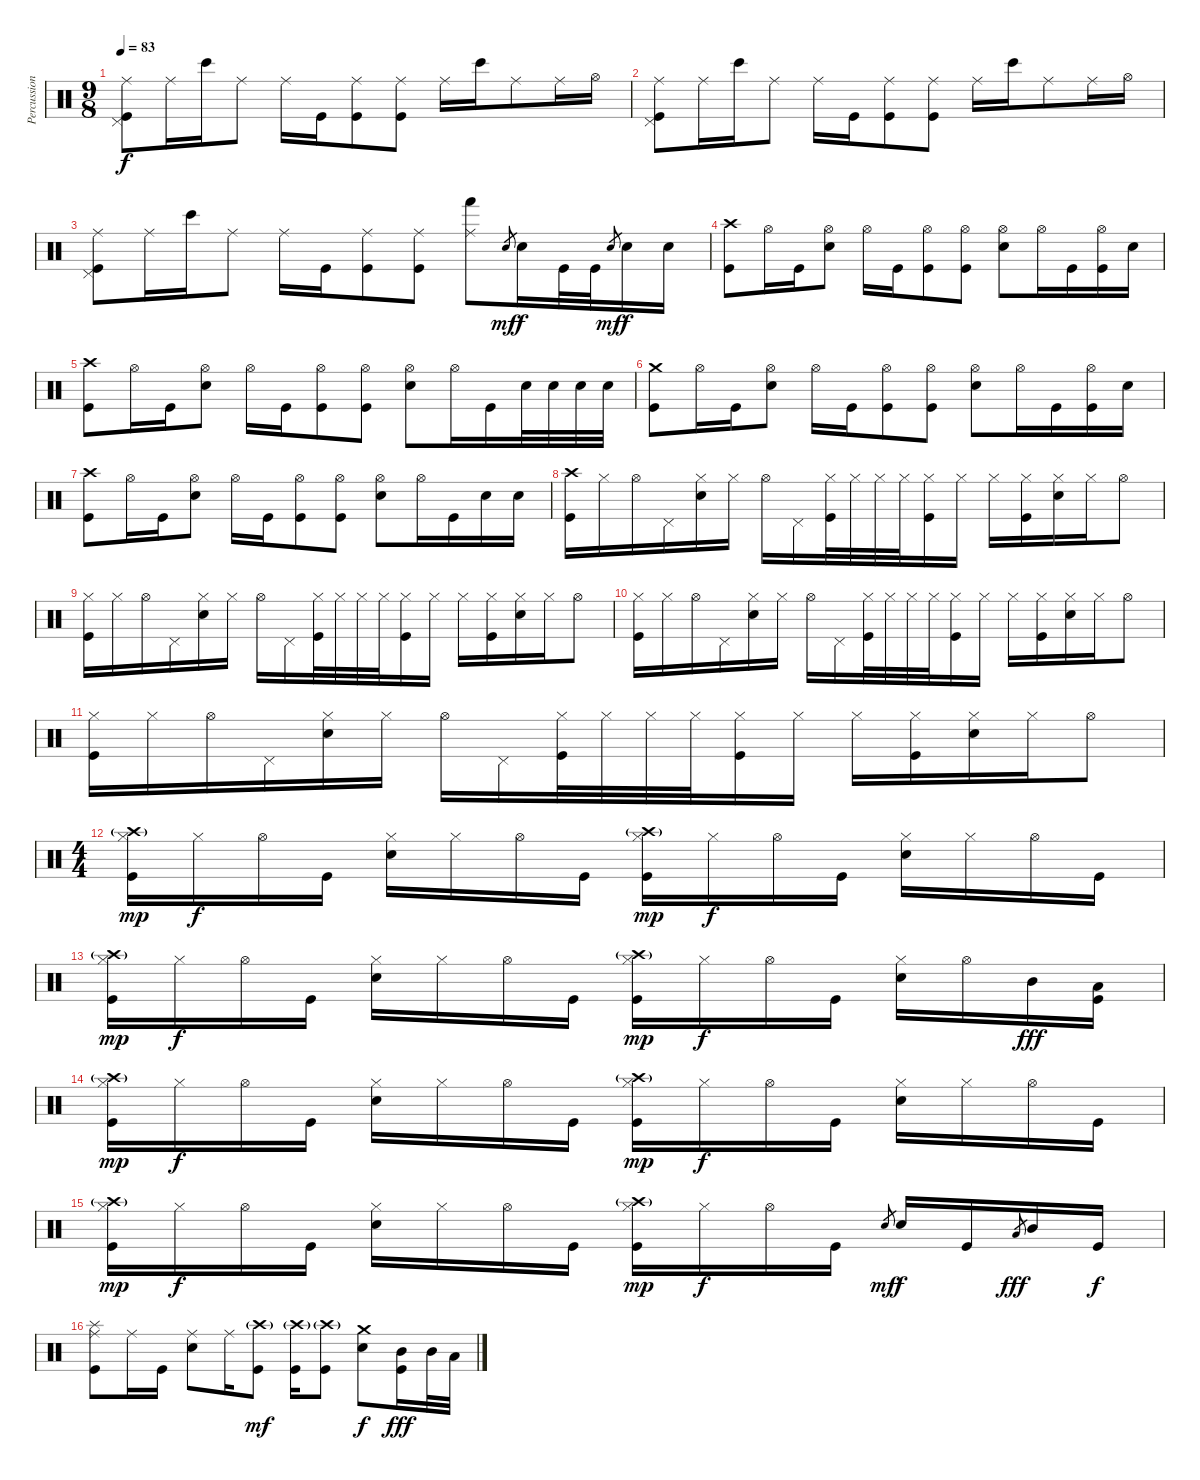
\track ("Percussions" "Percussion") {instrument percussion}
\staff {score}
\articulation defaults
\ts (9 8)
\tempo 83
\clef neutral
\ks c
("Ride (middle)" "Pedal Hi-Hat (hit)" "Kick (hit)").8{dy f} "Ride (middle)".16 "Bongo High (hit)".16 "Ride (middle)".8 "Ride (middle)".16 "Kick (hit)".16 ("Ride (middle)" "Kick (hit)").8 ("Ride (middle)" "Kick (hit)").8 "Ride (middle)".16 "Bongo High (hit)".16 "Ride (middle)".8 "Ride (middle)".16 "Hi-Hat (open)".16 |
("Ride (middle)" "Pedal Hi-Hat (hit)" "Kick (hit)").8 "Ride (middle)".16 "Bongo High (hit)".16 "Ride (middle)".8 "Ride (middle)".16 "Kick (hit)".16 ("Ride (middle)" "Kick (hit)").8 ("Ride (middle)" "Kick (hit)").8 "Ride (middle)".16 "Bongo High (hit)".16 "Ride (middle)".8 "Ride (middle)".16 "Hi-Hat (open)".16 |
("Ride (middle)" "Pedal Hi-Hat (hit)" "Kick (hit)").8 "Ride (middle)".16 "Bongo High (hit)".16 "Ride (middle)".8 "Ride (middle)".16 "Kick (hit)".16 ("Ride (middle)" "Kick (hit)").8 ("Ride (middle)" "Kick (hit)").8 ("Ride (middle)" "Hand (hit)").8 "Electric Snare (hit)".8{gr dy mf} "Electric Snare (hit)".16{dy f} "Kick (hit)".32 "Kick (hit)".32 "Electric Snare (hit)".8{gr dy mf} "Electric Snare (hit)".16{dy f} "Electric Snare (hit)".16 |
("Crash high (hit)" "Kick (hit)").8{volume 16} "Hi-Hat (open)".16 "Kick (hit)".16 ("Hi-Hat (open)" "Electric Snare (hit)").8 "Hi-Hat (open)".16 "Kick (hit)".16 ("Hi-Hat (open)" "Kick (hit)").8 ("Hi-Hat (open)" "Kick (hit)").8 ("Hi-Hat (open)" "Electric Snare (hit)").8 "Hi-Hat (open)".16 "Kick (hit)".16 ("Hi-Hat (open)" "Kick (hit)").16 "Electric Snare (hit)".16 |
("Crash high (hit)" "Kick (hit)").8 "Hi-Hat (open)".16 "Kick (hit)".16 ("Hi-Hat (open)" "Electric Snare (hit)").8 "Hi-Hat (open)".16 "Kick (hit)".16 ("Hi-Hat (open)" "Kick (hit)").8 ("Hi-Hat (open)" "Kick (hit)").8 ("Hi-Hat (open)" "Electric Snare (hit)").8 "Hi-Hat (open)".16 "Kick (hit)".16 "Electric Snare (hit)".32 "Electric Snare (hit)".32 "Electric Snare (hit)".32 "Electric Snare (hit)".32 |
("Crash medium (hit)" "Kick (hit)").8 "Hi-Hat (open)".16 "Kick (hit)".16 ("Hi-Hat (open)" "Electric Snare (hit)").8 "Hi-Hat (open)".16 "Kick (hit)".16 ("Hi-Hat (open)" "Kick (hit)").8 ("Hi-Hat (open)" "Kick (hit)").8 ("Hi-Hat (open)" "Electric Snare (hit)").8 "Hi-Hat (open)".16 "Kick (hit)".16 ("Hi-Hat (open)" "Kick (hit)").16 "Electric Snare (hit)".16 |
("Crash high (hit)" "Kick (hit)").8 "Hi-Hat (open)".16 "Kick (hit)".16 ("Hi-Hat (open)" "Electric Snare (hit)").8 "Hi-Hat (open)".16 "Kick (hit)".16 ("Hi-Hat (open)" "Kick (hit)").8 ("Hi-Hat (open)" "Kick (hit)").8 ("Hi-Hat (open)" "Electric Snare (hit)").8 "Hi-Hat (open)".16 "Kick (hit)".16 "Electric Snare (hit)".16 "Electric Snare (hit)".16 |
("Crash high (hit)" "Kick (hit)").16 "Hi-Hat (closed)".16 "Hi-Hat (open)".16 "Pedal Hi-Hat (hit)".16 ("Hi-Hat (closed)" "Electric Snare (hit)").16 "Hi-Hat (closed)".16 "Hi-Hat (open)".16 "Pedal Hi-Hat (hit)".16 ("Hi-Hat (closed)" "Kick (hit)").32 "Hi-Hat (closed)".32 "Hi-Hat (closed)".32 "Hi-Hat (closed)".32 ("Hi-Hat (closed)" "Kick (hit)").16 "Hi-Hat (closed)".16 "Hi-Hat (closed)".16 ("Hi-Hat (closed)" "Kick (hit)").16 ("Hi-Hat (closed)" "Electric Snare (hit)").16 "Hi-Hat (closed)".16 "Hi-Hat (open)".8 |
("Hi-Hat (closed)" "Kick (hit)").16 "Hi-Hat (closed)".16 "Hi-Hat (open)".16 "Pedal Hi-Hat (hit)".16 ("Hi-Hat (closed)" "Electric Snare (hit)").16 "Hi-Hat (closed)".16 "Hi-Hat (open)".16 "Pedal Hi-Hat (hit)".16 ("Hi-Hat (closed)" "Kick (hit)").32 "Hi-Hat (closed)".32 "Hi-Hat (closed)".32 "Hi-Hat (closed)".32 ("Hi-Hat (closed)" "Kick (hit)").16 "Hi-Hat (closed)".16 "Hi-Hat (closed)".16 ("Hi-Hat (closed)" "Kick (hit)").16 ("Hi-Hat (closed)" "Electric Snare (hit)").16 "Hi-Hat (closed)".16 "Hi-Hat (open)".8 |
("Hi-Hat (closed)" "Kick (hit)").16 "Hi-Hat (closed)".16 "Hi-Hat (open)".16 "Pedal Hi-Hat (hit)".16 ("Hi-Hat (closed)" "Electric Snare (hit)").16 "Hi-Hat (closed)".16 "Hi-Hat (open)".16 "Pedal Hi-Hat (hit)".16 ("Hi-Hat (closed)" "Kick (hit)").32 "Hi-Hat (closed)".32 "Hi-Hat (closed)".32 "Hi-Hat (closed)".32 ("Hi-Hat (closed)" "Kick (hit)").16 "Hi-Hat (closed)".16 "Hi-Hat (closed)".16 ("Hi-Hat (closed)" "Kick (hit)").16 ("Hi-Hat (closed)" "Electric Snare (hit)").16 "Hi-Hat (closed)".16 "Hi-Hat (open)".8 |
("Hi-Hat (closed)" "Kick (hit)").16 "Hi-Hat (closed)".16 "Hi-Hat (open)".16 "Pedal Hi-Hat (hit)".16 ("Hi-Hat (closed)" "Electric Snare (hit)").16 "Hi-Hat (closed)".16 "Hi-Hat (open)".16 "Pedal Hi-Hat (hit)".16 ("Hi-Hat (closed)" "Kick (hit)").32 "Hi-Hat (closed)".32 "Hi-Hat (closed)".32 "Hi-Hat (closed)".32 ("Hi-Hat (closed)" "Kick (hit)").16 "Hi-Hat (closed)".16 "Hi-Hat (closed)".16 ("Hi-Hat (closed)" "Kick (hit)").16 ("Hi-Hat (closed)" "Electric Snare (hit)").16 "Hi-Hat (closed)".16 "Hi-Hat (open)".8 |
\ts (4 4)
("Crash high (hit)"{g} "Hi-Hat (closed)" "Kick (hit)").16{dy mp} "Hi-Hat (closed)".16{dy f} "Hi-Hat (open)".16 "Kick (hit)".16 ("Hi-Hat (closed)" "Electric Snare (hit)").16 "Hi-Hat (closed)".16 "Hi-Hat (open)".16 "Kick (hit)".16 ("Crash high (hit)"{g} "Hi-Hat (closed)" "Kick (hit)").16{dy mp} "Hi-Hat (closed)".16{dy f} "Hi-Hat (open)".16 "Kick (hit)".16 ("Hi-Hat (closed)" "Electric Snare (hit)").16 "Hi-Hat (closed)".16 "Hi-Hat (open)".16 "Kick (hit)".16 |
("Crash high (hit)"{g} "Hi-Hat (closed)" "Kick (hit)").16{dy mp} "Hi-Hat (closed)".16{dy f} "Hi-Hat (open)".16 "Kick (hit)".16 ("Hi-Hat (closed)" "Electric Snare (hit)").16 "Hi-Hat (closed)".16 "Hi-Hat (open)".16 "Kick (hit)".16 ("Crash high (hit)"{g} "Hi-Hat (closed)" "Kick (hit)").16{dy mp} "Hi-Hat (closed)".16{dy f} "Hi-Hat (open)".16 "Kick (hit)".16 ("Hi-Hat (closed)" "Electric Snare (hit)").16 "Hi-Hat (open)".16 "Mid Tom (hit)".16{dy fff volume 12} ("Low Tom (hit)" "Kick (hit)").16 |
("Crash high (hit)"{g} "Hi-Hat (closed)" "Kick (hit)").16{dy mp volume 16} "Hi-Hat (closed)".16{dy f} "Hi-Hat (open)".16 "Kick (hit)".16 ("Hi-Hat (closed)" "Electric Snare (hit)").16 "Hi-Hat (closed)".16 "Hi-Hat (open)".16 "Kick (hit)".16 ("Crash high (hit)"{g} "Hi-Hat (closed)" "Kick (hit)").16{dy mp} "Hi-Hat (closed)".16{dy f} "Hi-Hat (open)".16 "Kick (hit)".16 ("Hi-Hat (closed)" "Electric Snare (hit)").16 "Hi-Hat (closed)".16 "Hi-Hat (open)".16 "Kick (hit)".16 |
("Crash high (hit)"{g} "Hi-Hat (closed)" "Kick (hit)").16{dy mp} "Hi-Hat (closed)".16{dy f} "Hi-Hat (open)".16 "Kick (hit)".16 ("Hi-Hat (closed)" "Electric Snare (hit)").16 "Hi-Hat (closed)".16 "Hi-Hat (open)".16 "Kick (hit)".16 ("Crash high (hit)"{g} "Hi-Hat (closed)" "Kick (hit)").16{dy mp} "Hi-Hat (closed)".16{dy f} "Hi-Hat (open)".16 "Kick (hit)".16 "Electric Snare (hit)".8{gr dy mf} "Electric Snare (hit)".16{dy f} "Kick (hit)".16{volume 12} "Low Tom (hit)".8{gr dy fff} "Mid Tom (hit)".16 "Kick (hit)".16{dy f} |
("Splash (hit)" "Ride (middle)" "Kick (hit)").8{volume 16} "Ride (middle)".16 "Kick (hit)".16 ("Ride (middle)" "Electric Snare (hit)").8 "Ride (middle)".16 ("Crash high (hit)"{g} "Kick (hit)").8{dy mf} ("Crash high (hit)"{g} "Kick (hit)").16 ("Crash high (hit)"{g} "Kick (hit)").8 ("Crash medium (hit)" "Electric Snare (hit)").8{dy f} ("Mid Tom (hit)" "Kick (hit)").16{dy fff volume 12} "Mid Tom (hit)".32 "Low Tom (hit)".32
